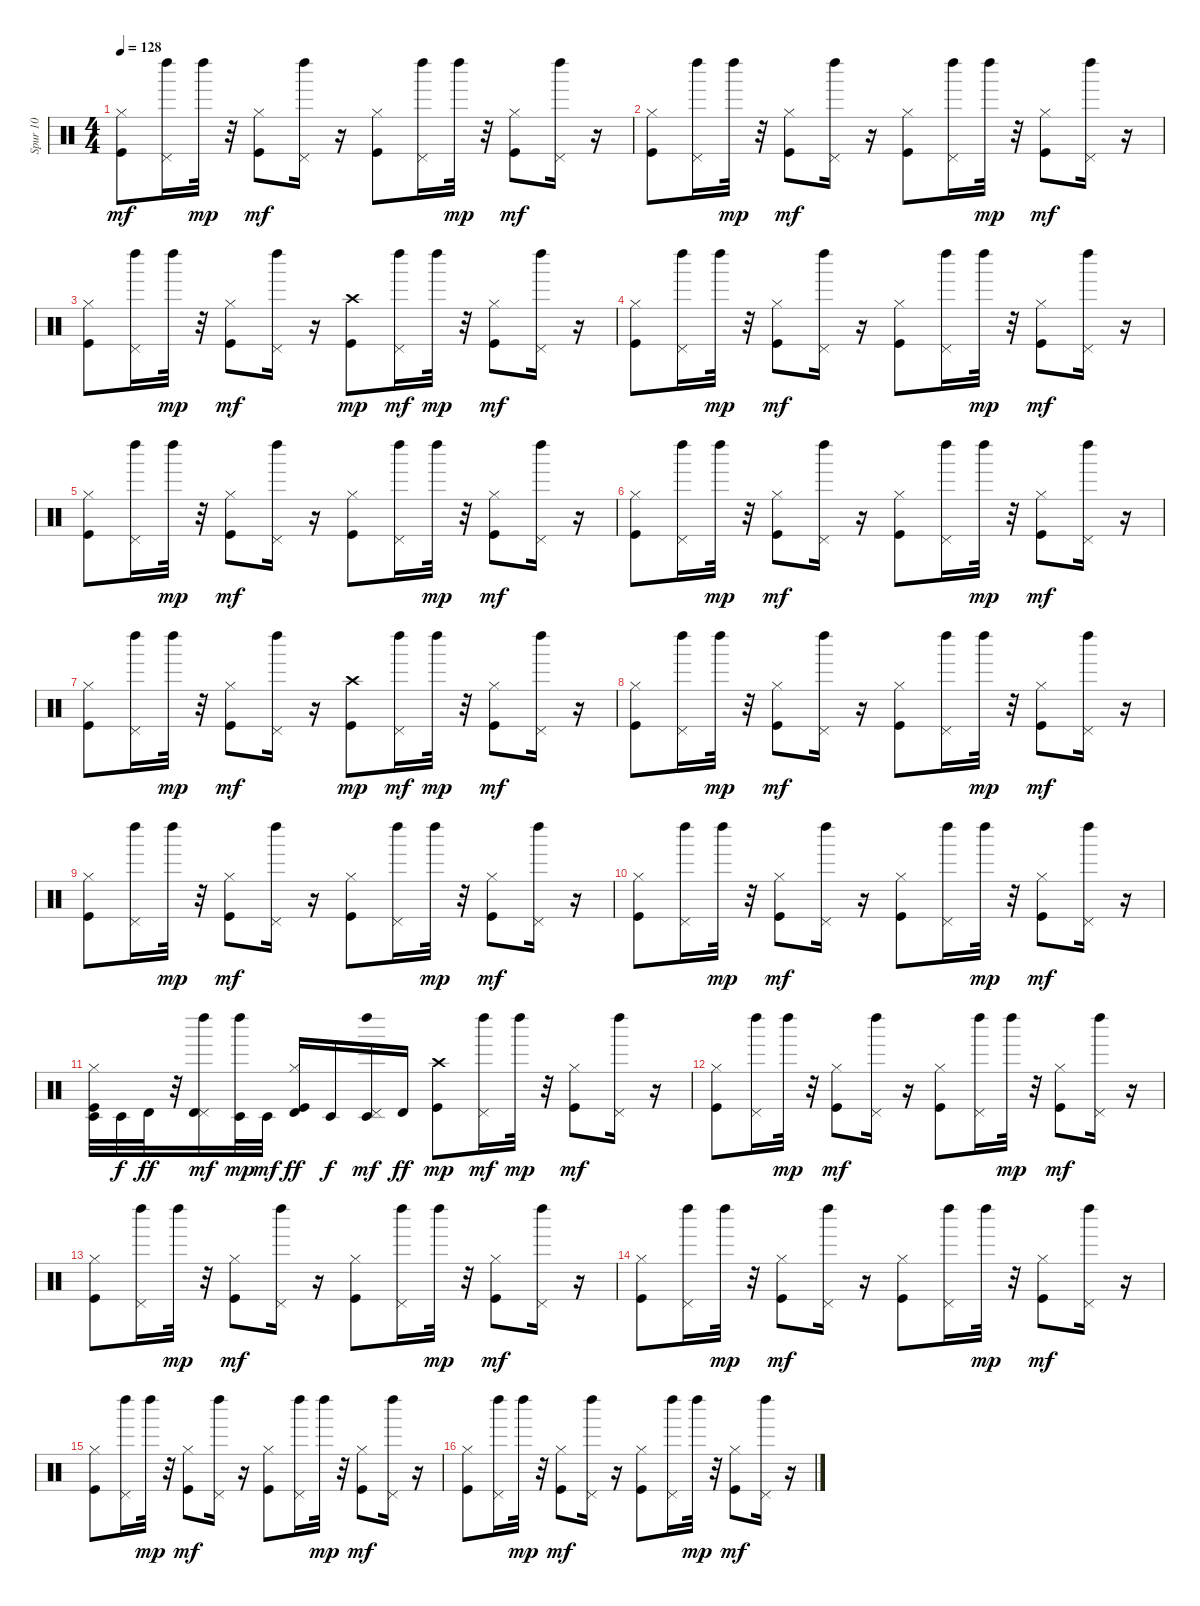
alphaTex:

\track ("Spur 10" "Spur 10") {instrument percussion}
\staff {score}
\articulation defaults
\ts (4 4)
\tempo 128
\clef neutral
\ks c
("Kick (hit)" "Hi-Hat (closed)").8{dy mf} ("Pedal Hi-Hat (hit)" "Left Maraca (hit)").16 "Left Maraca (hit)".32{dy mp} r.32 ("Kick (hit)" "Hi-Hat (closed)").8{dy mf} ("Pedal Hi-Hat (hit)" "Left Maraca (hit)").16 r.16 ("Kick (hit)" "Hi-Hat (closed)").8 ("Pedal Hi-Hat (hit)" "Left Maraca (hit)").16 "Left Maraca (hit)".32{dy mp} r.32 ("Kick (hit)" "Hi-Hat (closed)").8{dy mf} ("Pedal Hi-Hat (hit)" "Left Maraca (hit)").16 r.16 |
("Kick (hit)" "Hi-Hat (closed)").8 ("Pedal Hi-Hat (hit)" "Left Maraca (hit)").16 "Left Maraca (hit)".32{dy mp} r.32 ("Kick (hit)" "Hi-Hat (closed)").8{dy mf} ("Pedal Hi-Hat (hit)" "Left Maraca (hit)").16 r.16 ("Kick (hit)" "Hi-Hat (closed)").8 ("Pedal Hi-Hat (hit)" "Left Maraca (hit)").16 "Left Maraca (hit)".32{dy mp} r.32 ("Kick (hit)" "Hi-Hat (closed)").8{dy mf} ("Pedal Hi-Hat (hit)" "Left Maraca (hit)").16 r.16 |
("Kick (hit)" "Hi-Hat (closed)").8 ("Pedal Hi-Hat (hit)" "Left Maraca (hit)").16 "Left Maraca (hit)".32{dy mp} r.32 ("Kick (hit)" "Hi-Hat (closed)").8{dy mf} ("Pedal Hi-Hat (hit)" "Left Maraca (hit)").16 r.16 ("Kick (hit)" "Crash high (hit)").8{dy mp} ("Pedal Hi-Hat (hit)" "Left Maraca (hit)").16{dy mf} "Left Maraca (hit)".32{dy mp} r.32 ("Kick (hit)" "Hi-Hat (closed)").8{dy mf} ("Pedal Hi-Hat (hit)" "Left Maraca (hit)").16 r.16 |
("Kick (hit)" "Hi-Hat (closed)").8 ("Pedal Hi-Hat (hit)" "Left Maraca (hit)").16 "Left Maraca (hit)".32{dy mp} r.32 ("Kick (hit)" "Hi-Hat (closed)").8{dy mf} ("Pedal Hi-Hat (hit)" "Left Maraca (hit)").16 r.16 ("Kick (hit)" "Hi-Hat (closed)").8 ("Pedal Hi-Hat (hit)" "Left Maraca (hit)").16 "Left Maraca (hit)".32{dy mp} r.32 ("Kick (hit)" "Hi-Hat (closed)").8{dy mf} ("Pedal Hi-Hat (hit)" "Left Maraca (hit)").16 r.16 |
("Kick (hit)" "Hi-Hat (closed)").8 ("Pedal Hi-Hat (hit)" "Left Maraca (hit)").16 "Left Maraca (hit)".32{dy mp} r.32 ("Kick (hit)" "Hi-Hat (closed)").8{dy mf} ("Pedal Hi-Hat (hit)" "Left Maraca (hit)").16 r.16 ("Kick (hit)" "Hi-Hat (closed)").8 ("Pedal Hi-Hat (hit)" "Left Maraca (hit)").16 "Left Maraca (hit)".32{dy mp} r.32 ("Kick (hit)" "Hi-Hat (closed)").8{dy mf} ("Pedal Hi-Hat (hit)" "Left Maraca (hit)").16 r.16 |
("Kick (hit)" "Hi-Hat (closed)").8 ("Pedal Hi-Hat (hit)" "Left Maraca (hit)").16 "Left Maraca (hit)".32{dy mp} r.32 ("Kick (hit)" "Hi-Hat (closed)").8{dy mf} ("Pedal Hi-Hat (hit)" "Left Maraca (hit)").16 r.16 ("Kick (hit)" "Hi-Hat (closed)").8 ("Pedal Hi-Hat (hit)" "Left Maraca (hit)").16 "Left Maraca (hit)".32{dy mp} r.32 ("Kick (hit)" "Hi-Hat (closed)").8{dy mf} ("Pedal Hi-Hat (hit)" "Left Maraca (hit)").16 r.16 |
("Kick (hit)" "Hi-Hat (closed)").8 ("Pedal Hi-Hat (hit)" "Left Maraca (hit)").16 "Left Maraca (hit)".32{dy mp} r.32 ("Kick (hit)" "Hi-Hat (closed)").8{dy mf} ("Pedal Hi-Hat (hit)" "Left Maraca (hit)").16 r.16 ("Kick (hit)" "Crash high (hit)").8{dy mp} ("Pedal Hi-Hat (hit)" "Left Maraca (hit)").16{dy mf} "Left Maraca (hit)".32{dy mp} r.32 ("Kick (hit)" "Hi-Hat (closed)").8{dy mf} ("Pedal Hi-Hat (hit)" "Left Maraca (hit)").16 r.16 |
("Kick (hit)" "Hi-Hat (closed)").8 ("Pedal Hi-Hat (hit)" "Left Maraca (hit)").16 "Left Maraca (hit)".32{dy mp} r.32 ("Kick (hit)" "Hi-Hat (closed)").8{dy mf} ("Pedal Hi-Hat (hit)" "Left Maraca (hit)").16 r.16 ("Kick (hit)" "Hi-Hat (closed)").8 ("Pedal Hi-Hat (hit)" "Left Maraca (hit)").16 "Left Maraca (hit)".32{dy mp} r.32 ("Kick (hit)" "Hi-Hat (closed)").8{dy mf} ("Pedal Hi-Hat (hit)" "Left Maraca (hit)").16 r.16 |
("Kick (hit)" "Hi-Hat (closed)").8 ("Pedal Hi-Hat (hit)" "Left Maraca (hit)").16 "Left Maraca (hit)".32{dy mp} r.32 ("Kick (hit)" "Hi-Hat (closed)").8{dy mf} ("Pedal Hi-Hat (hit)" "Left Maraca (hit)").16 r.16 ("Kick (hit)" "Hi-Hat (closed)").8 ("Pedal Hi-Hat (hit)" "Left Maraca (hit)").16 "Left Maraca (hit)".32{dy mp} r.32 ("Kick (hit)" "Hi-Hat (closed)").8{dy mf} ("Pedal Hi-Hat (hit)" "Left Maraca (hit)").16 r.16 |
("Kick (hit)" "Hi-Hat (closed)").8 ("Pedal Hi-Hat (hit)" "Left Maraca (hit)").16 "Left Maraca (hit)".32{dy mp} r.32 ("Kick (hit)" "Hi-Hat (closed)").8{dy mf} ("Pedal Hi-Hat (hit)" "Left Maraca (hit)").16 r.16 ("Kick (hit)" "Hi-Hat (closed)").8 ("Pedal Hi-Hat (hit)" "Left Maraca (hit)").16 "Left Maraca (hit)".32{dy mp} r.32 ("Kick (hit)" "Hi-Hat (closed)").8{dy mf} ("Pedal Hi-Hat (hit)" "Left Maraca (hit)").16 r.16 |
("Kick (hit)" "Hi-Hat (closed)" "Timbale low (hit)").32 "Timbale low (hit)".32{dy f} "Timbale high (hit)".32{dy ff} r.32 ("Pedal Hi-Hat (hit)" "Timbale high (hit)" "Left Maraca (hit)").16{dy mf} ("Timbale low (hit)" "Left Maraca (hit)").32{dy mp} "Timbale low (hit)".32{dy mf} ("Kick (hit)" "Hi-Hat (closed)" "Timbale high (hit)").16{dy ff} "Timbale low (hit)".16{dy f} ("Pedal Hi-Hat (hit)" "Timbale low (hit)" "Left Maraca (hit)").16{dy mf} "Timbale high (hit)".16{dy ff} ("Kick (hit)" "Crash high (hit)").8{dy mp} ("Pedal Hi-Hat (hit)" "Left Maraca (hit)").16{dy mf} "Left Maraca (hit)".32{dy mp} r.32 ("Kick (hit)" "Hi-Hat (closed)").8{dy mf} ("Pedal Hi-Hat (hit)" "Left Maraca (hit)").16 r.16 |
("Kick (hit)" "Hi-Hat (closed)").8 ("Pedal Hi-Hat (hit)" "Left Maraca (hit)").16 "Left Maraca (hit)".32{dy mp} r.32 ("Kick (hit)" "Hi-Hat (closed)").8{dy mf} ("Pedal Hi-Hat (hit)" "Left Maraca (hit)").16 r.16 ("Kick (hit)" "Hi-Hat (closed)").8 ("Pedal Hi-Hat (hit)" "Left Maraca (hit)").16 "Left Maraca (hit)".32{dy mp} r.32 ("Kick (hit)" "Hi-Hat (closed)").8{dy mf} ("Pedal Hi-Hat (hit)" "Left Maraca (hit)").16 r.16 |
("Kick (hit)" "Hi-Hat (closed)").8 ("Pedal Hi-Hat (hit)" "Left Maraca (hit)").16 "Left Maraca (hit)".32{dy mp} r.32 ("Kick (hit)" "Hi-Hat (closed)").8{dy mf} ("Pedal Hi-Hat (hit)" "Left Maraca (hit)").16 r.16 ("Kick (hit)" "Hi-Hat (closed)").8 ("Pedal Hi-Hat (hit)" "Left Maraca (hit)").16 "Left Maraca (hit)".32{dy mp} r.32 ("Kick (hit)" "Hi-Hat (closed)").8{dy mf} ("Pedal Hi-Hat (hit)" "Left Maraca (hit)").16 r.16 |
("Kick (hit)" "Hi-Hat (closed)").8 ("Pedal Hi-Hat (hit)" "Left Maraca (hit)").16 "Left Maraca (hit)".32{dy mp} r.32 ("Kick (hit)" "Hi-Hat (closed)").8{dy mf} ("Pedal Hi-Hat (hit)" "Left Maraca (hit)").16 r.16 ("Kick (hit)" "Hi-Hat (closed)").8 ("Pedal Hi-Hat (hit)" "Left Maraca (hit)").16 "Left Maraca (hit)".32{dy mp} r.32 ("Kick (hit)" "Hi-Hat (closed)").8{dy mf} ("Pedal Hi-Hat (hit)" "Left Maraca (hit)").16 r.16 |
("Kick (hit)" "Hi-Hat (closed)").8 ("Pedal Hi-Hat (hit)" "Left Maraca (hit)").16 "Left Maraca (hit)".32{dy mp} r.32 ("Kick (hit)" "Hi-Hat (closed)").8{dy mf} ("Pedal Hi-Hat (hit)" "Left Maraca (hit)").16 r.16 ("Kick (hit)" "Hi-Hat (closed)").8 ("Pedal Hi-Hat (hit)" "Left Maraca (hit)").16 "Left Maraca (hit)".32{dy mp} r.32 ("Kick (hit)" "Hi-Hat (closed)").8{dy mf} ("Pedal Hi-Hat (hit)" "Left Maraca (hit)").16 r.16 |
("Kick (hit)" "Hi-Hat (closed)").8 ("Pedal Hi-Hat (hit)" "Left Maraca (hit)").16 "Left Maraca (hit)".32{dy mp} r.32 ("Kick (hit)" "Hi-Hat (closed)").8{dy mf} ("Pedal Hi-Hat (hit)" "Left Maraca (hit)").16 r.16 ("Kick (hit)" "Hi-Hat (closed)").8 ("Pedal Hi-Hat (hit)" "Left Maraca (hit)").16 "Left Maraca (hit)".32{dy mp} r.32 ("Kick (hit)" "Hi-Hat (closed)").8{dy mf} ("Pedal Hi-Hat (hit)" "Left Maraca (hit)").16 r.16
